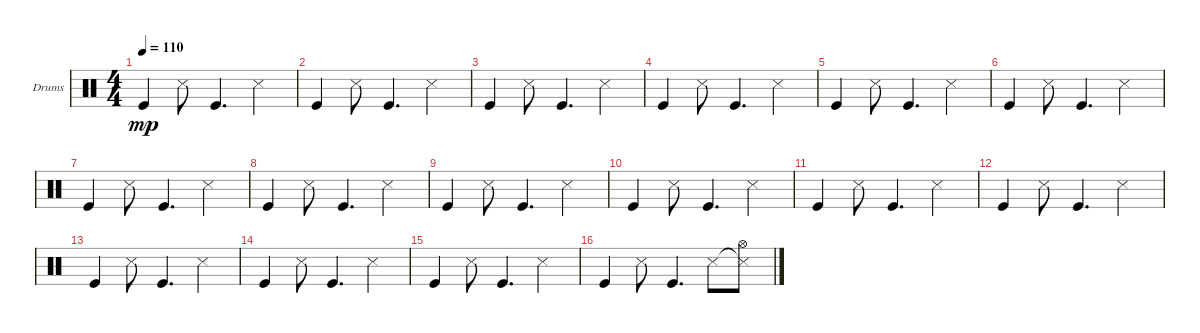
\defaultSystemsLayout 4
\bracketExtendMode groupsimilarinstruments
\firstSystemTrackNameOrientation horizontal
\otherSystemsTrackNameOrientation horizontal
\track ("Drumkit" "Drums") {instrument percussion}
\staff {score}
\articulation defaults
\ts (4 4)
\tempo 110
\clef neutral
\scale
0.474178
\ks c "Kick (hit)".4{dy mp} "Snare (side stick) 3".8 "Kick (hit)".4{d} "Snare (side stick) 3".4
|
\scale
0.262911 "Kick (hit)".4 "Snare (side stick) 3".8 "Kick (hit)".4{d} "Snare (side stick) 3".4 |
\scale
0.262911 "Kick (hit)".4 "Snare (side stick) 3".8 "Kick (hit)".4{d} "Snare (side stick) 3".4 |
\scale
0.333333 "Kick (hit)".4 "Snare (side stick) 3".8 "Kick (hit)".4{d} "Snare (side stick) 3".4 |
\scale
0.333333 "Kick (hit)".4 "Snare (side stick) 3".8 "Kick (hit)".4{d} "Snare (side stick) 3".4 |
\scale
0.333333 "Kick (hit)".4 "Snare (side stick) 3".8 "Kick (hit)".4{d} "Snare (side stick) 3".4 |
\scale
0.333333 "Kick (hit)".4 "Snare (side stick) 3".8 "Kick (hit)".4{d} "Snare (side stick) 3".4 |
\scale
0.333333 "Kick (hit)".4 "Snare (side stick) 3".8 "Kick (hit)".4{d} "Snare (side stick) 3".4 |
\scale
0.333333 "Kick (hit)".4 "Snare (side stick) 3".8 "Kick (hit)".4{d} "Snare (side stick) 3".4 |
\scale
0.333333 "Kick (hit)".4 "Snare (side stick) 3".8 "Kick (hit)".4{d} "Snare (side stick) 3".4 |
\scale
0.333333 "Kick (hit)".4 "Snare (side stick) 3".8 "Kick (hit)".4{d} "Snare (side stick) 3".4 |
\scale
0.333333 "Kick (hit)".4 "Snare (side stick) 3".8 "Kick (hit)".4{d} "Snare (side stick) 3".4 |
\scale
0.333333 "Kick (hit)".4 "Snare (side stick) 3".8 "Kick (hit)".4{d} "Snare (side stick) 3".4 |
\scale
0.333333 "Kick (hit)".4 "Snare (side stick) 3".8 "Kick (hit)".4{d} "Snare (side stick) 3".4 |
\scale
0.333333 "Kick (hit)".4 "Snare (side stick) 3".8 "Kick (hit)".4{d} "Snare (side stick) 3".4 |
\scale
0.333333 "Kick (hit)".4 "Snare (side stick) 3".8 "Kick (hit)".4{d} "Snare (side stick) 3".8 ("Snare (side stick) 3"{t} "Hi-Hat (open)").8
